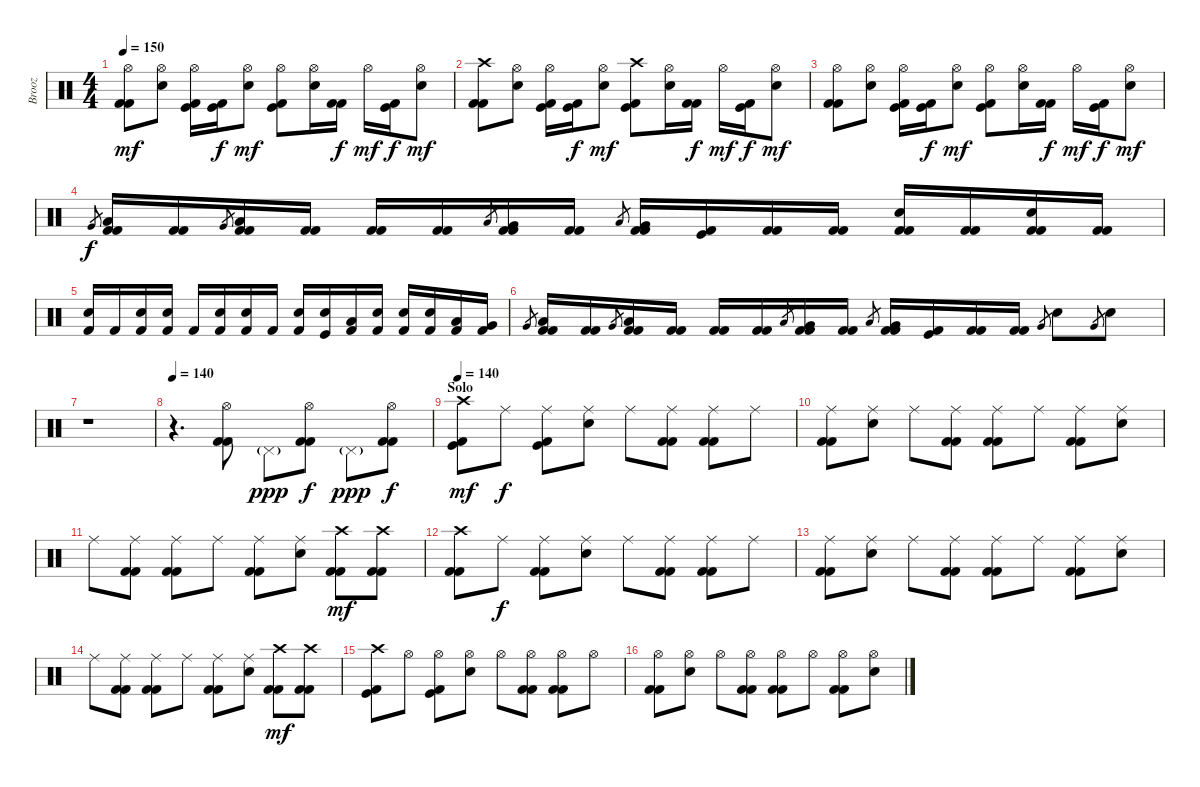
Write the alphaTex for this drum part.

\track ("Brooz" "Brooz") {instrument percussion}
\staff {score}
\articulation defaults
\ts (4 4)
\tempo 150
\clef neutral
\ks c
("Hi-Hat (open)" "Kick (hit) 2" "Kick (hit) 2").8{dy mf} ("Hi-Hat (open)" "Snare (hit) 2").8 ("Hi-Hat (open)" "Kick (hit) 2" "Kick (hit)").16 ("Kick (hit) 2" "Kick (hit)").16{dy f} ("Hi-Hat (open)" "Snare (hit) 2").8{dy mf} ("Hi-Hat (open)" "Kick (hit) 2" "Kick (hit)").8 ("Hi-Hat (open)" "Snare (hit) 2").16 ("Kick (hit) 2" "Kick (hit) 2").16{dy f} "Hi-Hat (open)".16{dy mf} ("Kick (hit) 2" "Kick (hit)").16{dy f} ("Hi-Hat (open)" "Snare (hit) 2").8{dy mf} |
("Crash high (hit)" "Kick (hit) 2" "Kick (hit) 2").8 ("Hi-Hat (open)" "Snare (hit) 2").8 ("Hi-Hat (open)" "Kick (hit) 2" "Kick (hit)").16 ("Kick (hit) 2" "Kick (hit)").16{dy f} ("Hi-Hat (open)" "Snare (hit) 2").8{dy mf} ("Crash high (hit)" "Kick (hit) 2" "Kick (hit)").8 ("Hi-Hat (open)" "Snare (hit) 2").16 ("Kick (hit) 2" "Kick (hit) 2").16{dy f} "Hi-Hat (open)".16{dy mf} ("Kick (hit) 2" "Kick (hit)").16{dy f} ("Hi-Hat (open)" "Snare (hit) 2").8{dy mf} |
("Hi-Hat (open)" "Kick (hit) 2" "Kick (hit) 2").8 ("Hi-Hat (open)" "Snare (hit) 2").8 ("Hi-Hat (open)" "Kick (hit) 2" "Kick (hit)").16 ("Kick (hit) 2" "Kick (hit)").16{dy f} ("Hi-Hat (open)" "Snare (hit) 2").8{dy mf} ("Hi-Hat (open)" "Kick (hit) 2" "Kick (hit)").8 ("Hi-Hat (open)" "Snare (hit) 2").16 ("Kick (hit) 2" "Kick (hit) 2").16{dy f} "Hi-Hat (open)".16{dy mf} ("Kick (hit) 2" "Kick (hit)").16{dy f} ("Hi-Hat (open)" "Snare (hit) 2").8{dy mf} |
"Very Low Tom (hit)".8{gr dy f} ("Low Tom (hit)" "Kick (hit) 2" "Kick (hit) 2").16 ("Kick (hit) 2" "Kick (hit) 2").16 "Very Low Tom (hit)".8{gr} ("Low Tom (hit)" "Kick (hit) 2" "Kick (hit) 2").16 ("Kick (hit) 2" "Kick (hit) 2").16 ("Kick (hit) 2" "Kick (hit) 2").16 ("Kick (hit) 2" "Kick (hit) 2").16 "Low Floor Tom (hit)".8{gr} ("Very Low Tom (hit)" "Kick (hit) 2" "Kick (hit) 2").16 ("Kick (hit) 2" "Kick (hit) 2").16 "Low Floor Tom (hit)".8{gr} ("Very Low Tom (hit)" "Kick (hit) 2" "Kick (hit) 2").16 ("Kick (hit) 2" "Kick (hit)").16 ("Kick (hit) 2" "Kick (hit) 2").16 ("Kick (hit) 2" "Kick (hit) 2").16 ("Snare (hit) 2" "Kick (hit) 2" "Kick (hit) 2").16 ("Kick (hit) 2" "Kick (hit) 2").16 ("Snare (hit) 2" "Kick (hit) 2" "Kick (hit) 2").16 ("Kick (hit) 2" "Kick (hit) 2").16 |
("Snare (hit) 2" "Kick (hit) 2").16 "Kick (hit) 2".16 ("Snare (hit) 2" "Kick (hit) 2").16 ("Snare (hit) 2" "Kick (hit) 2").16 "Kick (hit) 2".16 ("Snare (hit) 2" "Kick (hit) 2").16 ("Snare (hit) 2" "Kick (hit) 2").16 "Kick (hit) 2".16 ("Snare (hit) 2" "Kick (hit) 2").16 ("Snare (hit) 2" "Kick (hit)").16 ("Low Tom (hit)" "Kick (hit) 2").16 ("Snare (hit) 2" "Kick (hit) 2").16 ("Snare (hit) 2" "Kick (hit) 2").16 ("Snare (hit) 2" "Kick (hit) 2").16 ("Low Tom (hit)" "Kick (hit) 2").16 ("Very Low Tom (hit)" "Kick (hit) 2").16 |
"Very Low Tom (hit)".8{gr} ("Low Tom (hit)" "Kick (hit) 2" "Kick (hit) 2").16 ("Kick (hit) 2" "Kick (hit) 2").16 "Very Low Tom (hit)".8{gr} ("Low Tom (hit)" "Kick (hit) 2" "Kick (hit) 2").16 ("Kick (hit) 2" "Kick (hit) 2").16 ("Kick (hit) 2" "Kick (hit) 2").16 ("Kick (hit) 2" "Kick (hit) 2").16 "Low Floor Tom (hit)".8{gr} ("Very Low Tom (hit)" "Kick (hit) 2" "Kick (hit) 2").16 ("Kick (hit) 2" "Kick (hit) 2").16 "Low Floor Tom (hit)".8{gr} ("Very Low Tom (hit)" "Kick (hit) 2" "Kick (hit) 2").16 ("Kick (hit) 2" "Kick (hit)").16 ("Kick (hit) 2" "Kick (hit) 2").16 ("Kick (hit) 2" "Kick (hit) 2").16 "Very Low Tom (hit)".8{gr} "Snare (hit) 2".8 "Very Low Tom (hit)".8{gr} "Snare (hit) 2".8 |
r.1 |
\tempo 140
r.4{d} ("Hi-Hat (open)" "Kick (hit) 2" "Kick (hit) 2").8 "Pedal Hi-Hat (hit)"{g}.8{dy ppp} ("Hi-Hat (open)" "Kick (hit) 2" "Kick (hit) 2").8{dy f} "Pedal Hi-Hat (hit)"{g}.8{dy ppp} ("Hi-Hat (open)" "Kick (hit) 2" "Kick (hit) 2").8{dy f} |
\section ("" "Solo")
\tempo 140
("Crash high (hit)" "Kick (hit) 2" "Kick (hit)").8{dy mf} "Ride (middle)".8{dy f} ("Ride (middle)" "Kick (hit) 2" "Kick (hit)").8 ("Ride (middle)" "Snare (hit) 2").8 "Ride (middle)".8 ("Ride (middle)" "Kick (hit) 2" "Kick (hit) 2").8 ("Ride (middle)" "Kick (hit) 2" "Kick (hit) 2").8 "Ride (middle)".8 |
("Ride (middle)" "Kick (hit) 2" "Kick (hit) 2").8 ("Ride (middle)" "Snare (hit) 2").8 "Ride (middle)".8 ("Ride (middle)" "Kick (hit) 2" "Kick (hit) 2").8 ("Ride (middle)" "Kick (hit) 2" "Kick (hit) 2").8 "Ride (middle)".8 ("Ride (middle)" "Kick (hit) 2" "Kick (hit) 2").8 ("Ride (middle)" "Snare (hit) 2").8 |
"Ride (middle)".8 ("Ride (middle)" "Kick (hit) 2" "Kick (hit) 2").8 ("Ride (middle)" "Kick (hit) 2" "Kick (hit) 2").8 "Ride (middle)".8 ("Ride (middle)" "Kick (hit) 2" "Kick (hit) 2").8 ("Ride (middle)" "Snare (hit) 2").8 ("Crash high (hit)" "Kick (hit) 2" "Kick (hit) 2").8{dy mf} ("Crash high (hit)" "Kick (hit) 2" "Kick (hit) 2").8 |
("Crash high (hit)" "Kick (hit) 2" "Kick (hit) 2").8 "Ride (middle)".8{dy f} ("Ride (middle)" "Kick (hit) 2" "Kick (hit) 2").8 ("Ride (middle)" "Snare (hit) 2").8 "Ride (middle)".8 ("Ride (middle)" "Kick (hit) 2" "Kick (hit) 2").8 ("Ride (middle)" "Kick (hit) 2" "Kick (hit) 2").8 "Ride (middle)".8 |
("Ride (middle)" "Kick (hit) 2" "Kick (hit) 2").8 ("Ride (middle)" "Snare (hit) 2").8 "Ride (middle)".8 ("Ride (middle)" "Kick (hit) 2" "Kick (hit) 2").8 ("Ride (middle)" "Kick (hit) 2" "Kick (hit) 2").8 "Ride (middle)".8 ("Ride (middle)" "Kick (hit) 2" "Kick (hit) 2").8 ("Ride (middle)" "Snare (hit) 2").8 |
"Ride (middle)".8 ("Ride (middle)" "Kick (hit) 2" "Kick (hit) 2").8 ("Ride (middle)" "Kick (hit) 2" "Kick (hit) 2").8 "Ride (middle)".8 ("Ride (middle)" "Kick (hit) 2" "Kick (hit) 2").8 ("Ride (middle)" "Snare (hit) 2").8 ("Crash high (hit)" "Kick (hit) 2" "Kick (hit) 2").8{dy mf} ("Crash high (hit)" "Kick (hit) 2" "Kick (hit) 2").8 |
("Crash high (hit)" "Kick (hit) 2" "Kick (hit)").8 "Hi-Hat (open)".8 ("Hi-Hat (open)" "Kick (hit) 2" "Kick (hit)").8 ("Hi-Hat (open)" "Snare (hit) 2").8 "Hi-Hat (open)".8 ("Hi-Hat (open)" "Kick (hit) 2" "Kick (hit) 2").8 ("Hi-Hat (open)" "Kick (hit) 2" "Kick (hit) 2").8 "Hi-Hat (open)".8 |
("Hi-Hat (open)" "Kick (hit) 2" "Kick (hit) 2").8 ("Hi-Hat (open)" "Snare (hit) 2").8 "Hi-Hat (open)".8 ("Hi-Hat (open)" "Kick (hit) 2" "Kick (hit) 2").8 ("Hi-Hat (open)" "Kick (hit) 2" "Kick (hit) 2").8 "Hi-Hat (open)".8 ("Hi-Hat (open)" "Kick (hit) 2" "Kick (hit) 2").8 ("Hi-Hat (open)" "Snare (hit) 2").8
